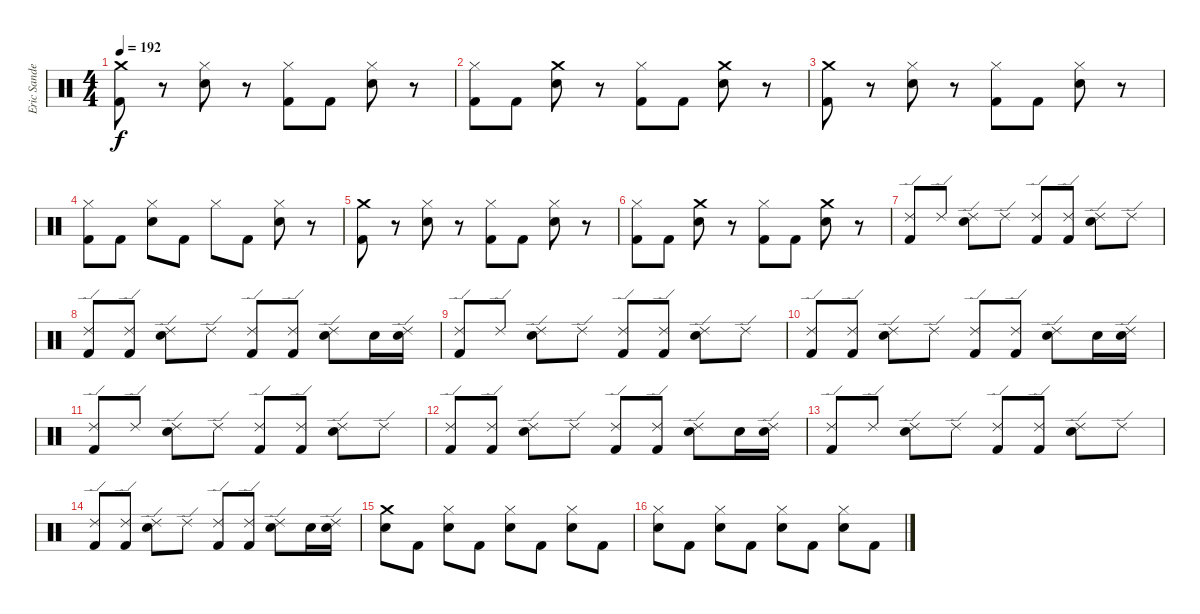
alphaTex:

\track ("Eric Sanden" "Eric Sande") {instrument percussion}
\staff {score}
\articulation defaults
\ts (4 4)
\tempo 192
\clef neutral
\ks c
("Crash medium (hit)" "Kick (hit) 2").8{dy f} r.8 ("Hi-Hat (closed)" "Snare (hit) 2").8 r.8 ("Hi-Hat (closed)" "Kick (hit) 2").8 "Kick (hit) 2".8 ("Hi-Hat (closed)" "Snare (hit) 2").8 r.8 |
("Hi-Hat (closed)" "Kick (hit) 2").8 "Kick (hit) 2".8 ("Crash medium (hit)" "Snare (hit) 2").8 r.8 ("Hi-Hat (closed)" "Kick (hit) 2").8 "Kick (hit) 2".8 ("Crash medium (hit)" "Snare (hit) 2").8 r.8 |
("Crash medium (hit)" "Kick (hit) 2").8 r.8 ("Hi-Hat (closed)" "Snare (hit) 2").8 r.8 ("Hi-Hat (closed)" "Kick (hit) 2").8 "Kick (hit) 2".8 ("Hi-Hat (closed)" "Snare (hit) 2").8 r.8 |
("Hi-Hat (closed)" "Kick (hit) 2").8 "Kick (hit) 2".8 ("Hi-Hat (closed)" "Snare (hit) 2").8 "Kick (hit) 2".8 "Hi-Hat (closed)".8 "Kick (hit) 2".8 ("Hi-Hat (closed)" "Snare (hit) 2").8 r.8 |
("Crash medium (hit)" "Kick (hit) 2").8 r.8 ("Hi-Hat (closed)" "Snare (hit) 2").8 r.8 ("Hi-Hat (closed)" "Kick (hit) 2").8 "Kick (hit) 2".8 ("Hi-Hat (closed)" "Snare (hit) 2").8 r.8 |
("Hi-Hat (closed)" "Kick (hit) 2").8 "Kick (hit) 2".8 ("Crash medium (hit)" "Snare (hit) 2").8 r.8 ("Hi-Hat (closed)" "Kick (hit) 2").8 "Kick (hit) 2".8 ("Crash medium (hit)" "Snare (hit) 2").8 r.8 |
("Ride (edge) 2" "Kick (hit) 2").8 "Ride (edge) 2".8 ("Ride (edge) 2" "Snare (hit) 2").8 "Ride (edge) 2".8 ("Ride (edge) 2" "Kick (hit) 2").8 ("Ride (edge) 2" "Kick (hit) 2").8 ("Ride (edge) 2" "Snare (hit) 2").8 "Ride (edge) 2".8 |
("Ride (edge) 2" "Kick (hit) 2").8 ("Ride (edge) 2" "Kick (hit) 2").8 ("Ride (edge) 2" "Snare (hit) 2").8 "Ride (edge) 2".8 ("Ride (edge) 2" "Kick (hit) 2").8 ("Ride (edge) 2" "Kick (hit) 2").8 ("Ride (edge) 2" "Snare (hit) 2").8 "Snare (hit) 2".16 ("Ride (edge) 2" "Snare (hit) 2").16 |
("Ride (edge) 2" "Kick (hit) 2").8 "Ride (edge) 2".8 ("Ride (edge) 2" "Snare (hit) 2").8 "Ride (edge) 2".8 ("Ride (edge) 2" "Kick (hit) 2").8 ("Ride (edge) 2" "Kick (hit) 2").8 ("Ride (edge) 2" "Snare (hit) 2").8 "Ride (edge) 2".8 |
("Ride (edge) 2" "Kick (hit) 2").8 ("Ride (edge) 2" "Kick (hit) 2").8 ("Ride (edge) 2" "Snare (hit) 2").8 "Ride (edge) 2".8 ("Ride (edge) 2" "Kick (hit) 2").8 ("Ride (edge) 2" "Kick (hit) 2").8 ("Ride (edge) 2" "Snare (hit) 2").8 "Snare (hit) 2".16 ("Ride (edge) 2" "Snare (hit) 2").16 |
("Ride (edge) 2" "Kick (hit) 2").8 "Ride (edge) 2".8 ("Ride (edge) 2" "Snare (hit) 2").8 "Ride (edge) 2".8 ("Ride (edge) 2" "Kick (hit) 2").8 ("Ride (edge) 2" "Kick (hit) 2").8 ("Ride (edge) 2" "Snare (hit) 2").8 "Ride (edge) 2".8 |
("Ride (edge) 2" "Kick (hit) 2").8 ("Ride (edge) 2" "Kick (hit) 2").8 ("Ride (edge) 2" "Snare (hit) 2").8 "Ride (edge) 2".8 ("Ride (edge) 2" "Kick (hit) 2").8 ("Ride (edge) 2" "Kick (hit) 2").8 ("Ride (edge) 2" "Snare (hit) 2").8 "Snare (hit) 2".16 ("Ride (edge) 2" "Snare (hit) 2").16 |
("Ride (edge) 2" "Kick (hit) 2").8 "Ride (edge) 2".8 ("Ride (edge) 2" "Snare (hit) 2").8 "Ride (edge) 2".8 ("Ride (edge) 2" "Kick (hit) 2").8 ("Ride (edge) 2" "Kick (hit) 2").8 ("Ride (edge) 2" "Snare (hit) 2").8 "Ride (edge) 2".8 |
("Ride (edge) 2" "Kick (hit) 2").8 ("Ride (edge) 2" "Kick (hit) 2").8 ("Ride (edge) 2" "Snare (hit) 2").8 "Ride (edge) 2".8 ("Ride (edge) 2" "Kick (hit) 2").8 ("Ride (edge) 2" "Kick (hit) 2").8 ("Ride (edge) 2" "Snare (hit) 2").8 "Snare (hit) 2".16 ("Ride (edge) 2" "Snare (hit) 2").16 |
("Crash medium (hit)" "Snare (hit) 2").8 "Kick (hit) 2".8 ("Hi-Hat (closed)" "Snare (hit) 2").8 "Kick (hit) 2".8 ("Hi-Hat (closed)" "Snare (hit) 2").8 "Kick (hit) 2".8 ("Hi-Hat (closed)" "Snare (hit) 2").8 "Kick (hit) 2".8 |
("Hi-Hat (closed)" "Snare (hit) 2").8 "Kick (hit) 2".8 ("Hi-Hat (closed)" "Snare (hit) 2").8 "Kick (hit) 2".8 ("Hi-Hat (closed)" "Snare (hit) 2").8 "Kick (hit) 2".8 ("Hi-Hat (closed)" "Snare (hit) 2").8 "Kick (hit) 2".8
